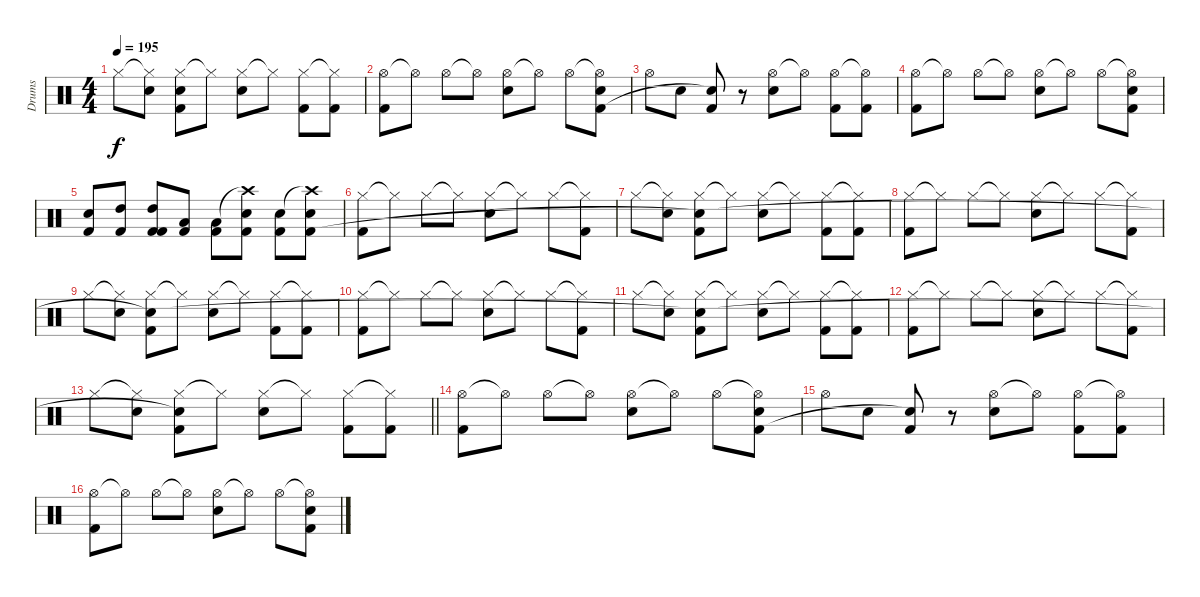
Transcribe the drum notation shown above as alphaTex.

\track ("Drums" "Drums") {instrument percussion}
\staff {score}
\articulation defaults
\ts (4 4)
\tempo 195
\clef neutral
\ks c "Hi-Hat (closed)".8{dy f}
("Hi-Hat (closed)"{t} "Snare (hit) 2").8 ("Hi-Hat (closed)" "Kick (hit) 2" "Snare (hit) 2"{t}).8 "Hi-Hat (closed)"{t}.8 ("Hi-Hat (closed)" "Snare (hit) 2").8 "Hi-Hat (closed)"{t}.8 ("Hi-Hat (closed)" "Kick (hit) 2").8 ("Hi-Hat (closed)"{t} "Kick (hit) 2").8 |
("Hi-Hat (open)" "Kick (hit) 2").8 "Hi-Hat (open)"{t}.8 "Hi-Hat (open)".8 "Hi-Hat (open)"{t}.8 ("Hi-Hat (open)" "Snare (hit) 2").8 "Hi-Hat (open)"{t}.8 "Hi-Hat (open)".8 ("Hi-Hat (open)"{t} "Kick (hit) 2" "Snare (hit) 2").8 |
"Hi-Hat (open)".8 "Snare (hit) 2".8 ("Kick (hit) 2" "Snare (hit) 2"{t}).8 r.8 ("Hi-Hat (open)" "Snare (hit) 2").8 "Hi-Hat (open)"{t}.8 ("Hi-Hat (open)" "Kick (hit) 2").8 ("Hi-Hat (open)"{t} "Kick (hit) 2").8 |
("Hi-Hat (open)" "Kick (hit) 2").8 "Hi-Hat (open)"{t}.8 "Hi-Hat (open)".8 "Hi-Hat (open)"{t}.8 ("Hi-Hat (open)" "Snare (hit) 2").8 "Hi-Hat (open)"{t}.8 "Hi-Hat (open)".8 ("Hi-Hat (open)"{t} "Kick (hit) 2" "Snare (hit) 2").8 |
("Snare (hit) 2" "Kick (hit) 2").8 ("High Tom (hit)" "Kick (hit) 2").8 ("Kick (hit) 2" "High Tom (hit)" "Kick (hit) 2").8 ("Low Tom (hit)" "Kick (hit) 2").8 ("Low Tom (hit)" "Kick (hit) 2").8 ("Crash high (hit)"{t} "Snare (hit) 2" "Kick (hit) 2").8 ("Snare (hit) 2" "Kick (hit) 2").8 ("Crash high (hit)"{t} "Snare (hit) 2" "Kick (hit) 2").8 |
("Hi-Hat (closed)" "Kick (hit) 2").8 "Hi-Hat (closed)"{t}.8 "Hi-Hat (closed)".8 "Hi-Hat (closed)"{t}.8 ("Hi-Hat (closed)" "Snare (hit) 2").8 "Hi-Hat (closed)"{t}.8 "Hi-Hat (closed)".8 ("Hi-Hat (closed)"{t} "Kick (hit) 2").8 |
"Hi-Hat (closed)".8 ("Hi-Hat (closed)"{t} "Snare (hit) 2").8 ("Hi-Hat (closed)" "Kick (hit) 2" "Snare (hit) 2"{t}).8 "Hi-Hat (closed)"{t}.8 ("Hi-Hat (closed)" "Snare (hit) 2").8 "Hi-Hat (closed)"{t}.8 ("Hi-Hat (closed)" "Kick (hit) 2").8 ("Hi-Hat (closed)"{t} "Kick (hit) 2").8 |
("Hi-Hat (closed)" "Kick (hit) 2").8 "Hi-Hat (closed)"{t}.8 "Hi-Hat (closed)".8 "Hi-Hat (closed)"{t}.8 ("Hi-Hat (closed)" "Snare (hit) 2").8 "Hi-Hat (closed)"{t}.8 "Hi-Hat (closed)".8 ("Hi-Hat (closed)"{t} "Kick (hit) 2").8 |
"Hi-Hat (closed)".8 ("Hi-Hat (closed)"{t} "Snare (hit) 2").8 ("Hi-Hat (closed)" "Kick (hit) 2" "Snare (hit) 2"{t}).8 "Hi-Hat (closed)"{t}.8 ("Hi-Hat (closed)" "Snare (hit) 2").8 "Hi-Hat (closed)"{t}.8 ("Hi-Hat (closed)" "Kick (hit) 2").8 ("Hi-Hat (closed)"{t} "Kick (hit) 2").8 |
("Hi-Hat (closed)" "Kick (hit) 2").8 "Hi-Hat (closed)"{t}.8 "Hi-Hat (closed)".8 "Hi-Hat (closed)"{t}.8 ("Hi-Hat (closed)" "Snare (hit) 2").8 "Hi-Hat (closed)"{t}.8 "Hi-Hat (closed)".8 ("Hi-Hat (closed)"{t} "Kick (hit) 2").8 |
"Hi-Hat (closed)".8 ("Hi-Hat (closed)"{t} "Snare (hit) 2").8 ("Hi-Hat (closed)" "Kick (hit) 2" "Snare (hit) 2"{t}).8 "Hi-Hat (closed)"{t}.8 ("Hi-Hat (closed)" "Snare (hit) 2").8 "Hi-Hat (closed)"{t}.8 ("Hi-Hat (closed)" "Kick (hit) 2").8 ("Hi-Hat (closed)"{t} "Kick (hit) 2").8 |
("Hi-Hat (closed)" "Kick (hit) 2").8 "Hi-Hat (closed)"{t}.8 "Hi-Hat (closed)".8 "Hi-Hat (closed)"{t}.8 ("Hi-Hat (closed)" "Snare (hit) 2").8 "Hi-Hat (closed)"{t}.8 "Hi-Hat (closed)".8 ("Hi-Hat (closed)"{t} "Kick (hit) 2").8 |
\barLineRight lightlight "Hi-Hat (closed)".8
("Hi-Hat (closed)"{t} "Snare (hit) 2").8 ("Hi-Hat (closed)" "Kick (hit) 2" "Snare (hit) 2"{t}).8 "Hi-Hat (closed)"{t}.8 ("Hi-Hat (closed)" "Snare (hit) 2").8 "Hi-Hat (closed)"{t}.8 ("Hi-Hat (closed)" "Kick (hit) 2").8 ("Hi-Hat (closed)"{t} "Kick (hit) 2").8 |
("Hi-Hat (open)" "Kick (hit) 2").8 "Hi-Hat (open)"{t}.8 "Hi-Hat (open)".8 "Hi-Hat (open)"{t}.8 ("Hi-Hat (open)" "Snare (hit) 2").8 "Hi-Hat (open)"{t}.8 "Hi-Hat (open)".8 ("Hi-Hat (open)"{t} "Kick (hit) 2" "Snare (hit) 2").8 |
"Hi-Hat (open)".8 "Snare (hit) 2".8 ("Kick (hit) 2" "Snare (hit) 2"{t}).8 r.8 ("Hi-Hat (open)" "Snare (hit) 2").8 "Hi-Hat (open)"{t}.8 ("Hi-Hat (open)" "Kick (hit) 2").8 ("Hi-Hat (open)"{t} "Kick (hit) 2").8 |
("Hi-Hat (open)" "Kick (hit) 2").8 "Hi-Hat (open)"{t}.8 "Hi-Hat (open)".8 "Hi-Hat (open)"{t}.8 ("Hi-Hat (open)" "Snare (hit) 2").8 "Hi-Hat (open)"{t}.8 "Hi-Hat (open)".8 ("Hi-Hat (open)"{t} "Kick (hit) 2" "Snare (hit) 2").8
